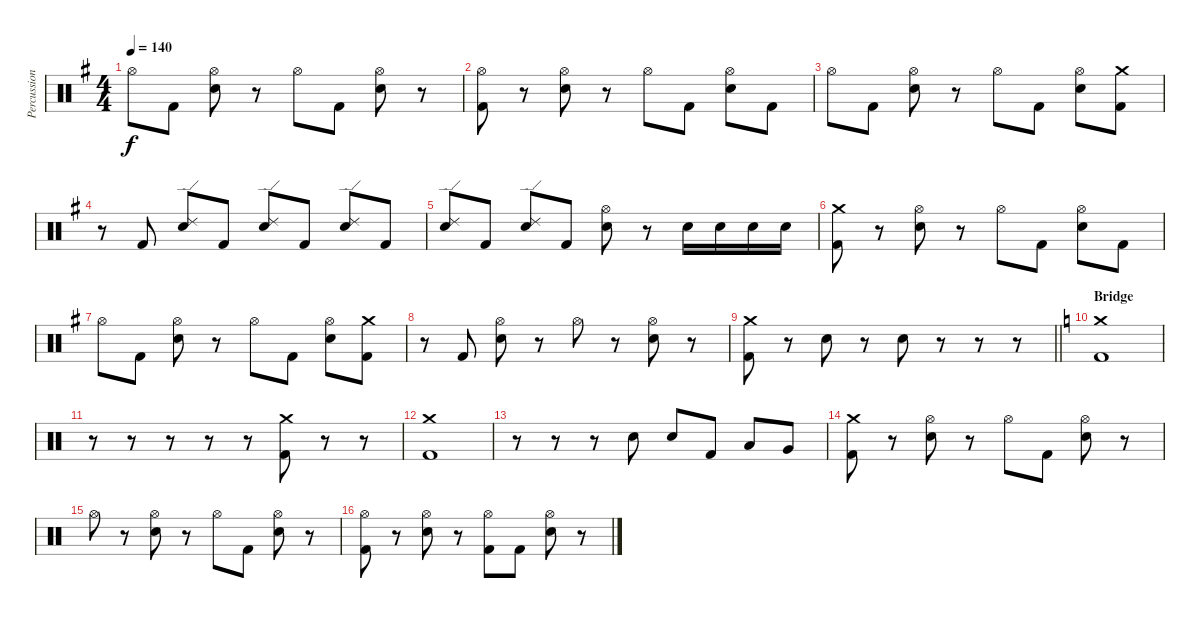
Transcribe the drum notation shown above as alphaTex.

\track ("Percussion" "Percussion") {instrument percussion}
\staff {score}
\articulation defaults
\ts (4 4)
\tempo 140
\clef neutral
\ks g "Hi-Hat (open)".8{dy f} "Kick (hit) 2".8
("Hi-Hat (open)" "Electric Snare (hit)").8 r.8 "Hi-Hat (open)".8 "Kick (hit) 2".8 ("Hi-Hat (open)" "Electric Snare (hit)").8 r.8 |
("Hi-Hat (open)" "Kick (hit) 2").8 r.8 ("Hi-Hat (open)" "Electric Snare (hit)").8 r.8 "Hi-Hat (open)".8 "Kick (hit) 2".8 ("Hi-Hat (open)" "Electric Snare (hit)").8 "Kick (hit) 2".8 |
"Hi-Hat (open)".8 "Kick (hit) 2".8 ("Hi-Hat (open)" "Electric Snare (hit)").8 r.8 "Hi-Hat (open)".8 "Kick (hit) 2".8 ("Hi-Hat (open)" "Electric Snare (hit)").8 ("Crash medium (hit)" "Kick (hit) 2").8 |
r.8 "Kick (hit) 2".8 ("Ride (edge) 2" "Electric Snare (hit)").8 "Kick (hit) 2".8 ("Ride (edge) 2" "Electric Snare (hit)").8 "Kick (hit) 2".8 ("Ride (edge) 2" "Electric Snare (hit)").8 "Kick (hit) 2".8 |
("Ride (edge) 2" "Electric Snare (hit)").8 "Kick (hit) 2".8 ("Ride (edge) 2" "Electric Snare (hit)").8 "Kick (hit) 2".8 ("Hi-Hat (open)" "Electric Snare (hit)").8 r.8 "Electric Snare (hit)".16 "Electric Snare (hit)".16 "Electric Snare (hit)".16 "Electric Snare (hit)".16 |
("Crash medium (hit)" "Kick (hit) 2").8 r.8 ("Hi-Hat (open)" "Electric Snare (hit)").8 r.8 "Hi-Hat (open)".8 "Kick (hit) 2".8 ("Hi-Hat (open)" "Electric Snare (hit)").8 "Kick (hit) 2".8 |
"Hi-Hat (open)".8 "Kick (hit) 2".8 ("Hi-Hat (open)" "Electric Snare (hit)").8 r.8 "Hi-Hat (open)".8 "Kick (hit) 2".8 ("Hi-Hat (open)" "Electric Snare (hit)").8 ("Crash medium (hit)" "Kick (hit) 2").8 |
r.8 "Kick (hit) 2".8 ("Hi-Hat (open)" "Electric Snare (hit)").8 r.8 "Hi-Hat (open)".8 r.8 ("Hi-Hat (open)" "Electric Snare (hit)").8 r.8 |
\barLineRight lightlight
("Crash medium (hit)" "Kick (hit) 2").8 r.8 "Electric Snare (hit)".8 r.8 "Electric Snare (hit)".8 r.8 r.8 r.8 |
\section ("" "Bridge")
\ks c
("Kick (hit) 2" "Crash medium (hit)").1 |
r.8 r.8 r.8 r.8 r.8 ("Kick (hit) 2" "Crash medium (hit)").8 r.8 r.8 |
("Crash medium (hit)" "Kick (hit) 2").1 |
r.8 r.8 r.8 "Electric Snare (hit)".8 "Electric Snare (hit)".8 "Kick (hit) 2".8 "Low Tom (hit)".8 "Very Low Tom (hit)".8 |
("Crash medium (hit)" "Kick (hit) 2").8 r.8 ("Hi-Hat (open)" "Electric Snare (hit)").8 r.8 "Hi-Hat (open)".8 "Kick (hit) 2".8 ("Hi-Hat (open)" "Electric Snare (hit)").8 r.8 |
"Hi-Hat (open)".8 r.8 ("Hi-Hat (open)" "Electric Snare (hit)").8 r.8 "Hi-Hat (open)".8 "Kick (hit) 2".8 ("Hi-Hat (open)" "Electric Snare (hit)").8 r.8 |
("Hi-Hat (open)" "Kick (hit) 2").8 r.8 ("Hi-Hat (open)" "Electric Snare (hit)").8 r.8 ("Hi-Hat (open)" "Kick (hit) 2").8 "Kick (hit) 2".8 ("Hi-Hat (open)" "Electric Snare (hit)").8 r.8
